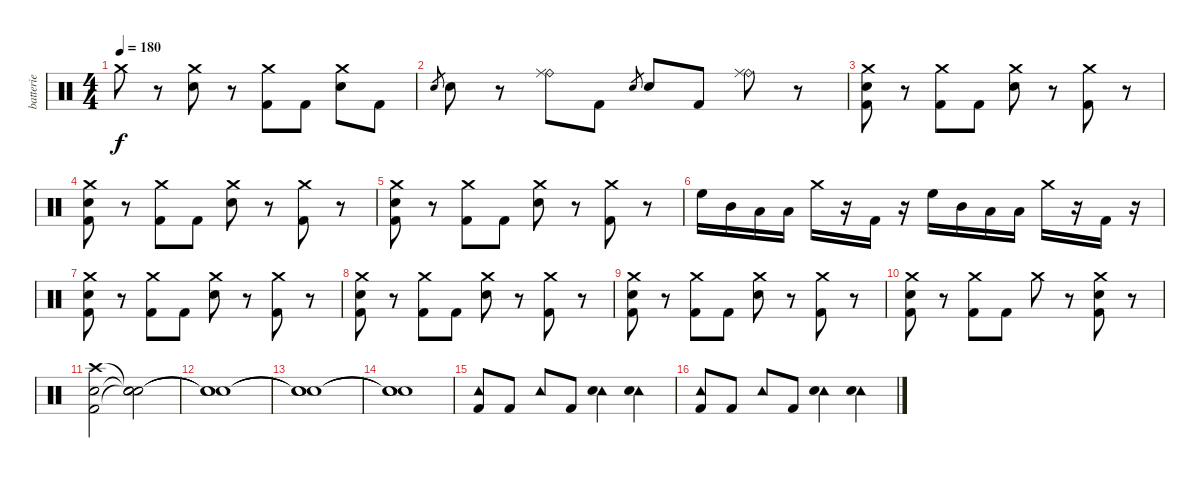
\track ("batterie" "batterie") {instrument percussion}
\staff {score}
\articulation defaults
\ts (4 4)
\tempo 180
\clef neutral
\ks c "Crash medium (hit)".8{dy f}
r.8 ("Crash medium (hit)" "Electric Snare (hit)").8 r.8 ("Crash medium (hit)" "Kick (hit) 2").8 "Kick (hit) 2".8 ("Crash medium (hit)" "Electric Snare (hit)").8 "Kick (hit) 2".8 |
"Electric Snare (hit)".8{gr} "Electric Snare (hit)".8 r.8 ("Ride (bell)" "Ride (middle)").8 "Kick (hit) 2".8 "Electric Snare (hit)".8{gr} "Electric Snare (hit)".8 "Kick (hit) 2".8 ("Ride (bell)" "Ride (middle)").8 r.8 |
("Crash medium (hit)" "Electric Snare (hit)" "Kick (hit) 2").8 r.8 ("Crash medium (hit)" "Kick (hit) 2").8 "Kick (hit) 2".8 ("Crash medium (hit)" "Electric Snare (hit)").8 r.8 ("Crash medium (hit)" "Kick (hit) 2").8 r.8 |
("Crash medium (hit)" "Electric Snare (hit)" "Kick (hit) 2").8 r.8 ("Crash medium (hit)" "Kick (hit) 2").8 "Kick (hit) 2".8 ("Crash medium (hit)" "Electric Snare (hit)").8 r.8 ("Crash medium (hit)" "Kick (hit) 2").8 r.8 |
("Crash medium (hit)" "Electric Snare (hit)" "Kick (hit) 2").8 r.8 ("Crash medium (hit)" "Kick (hit) 2").8 "Kick (hit) 2".8 ("Crash medium (hit)" "Electric Snare (hit)").8 r.8 ("Crash medium (hit)" "Kick (hit) 2").8 r.8 |
"High Floor Tom (hit)".16 "Mid Tom (hit)".16 "Low Tom (hit)".16 "Low Tom (hit)".16 "Crash medium (hit)".16 r.16 "Kick (hit) 2".16 r.16 "High Floor Tom (hit)".16 "Mid Tom (hit)".16 "Low Tom (hit)".16 "Low Tom (hit)".16 "Crash medium (hit)".16 r.16 "Kick (hit) 2".16 r.16 |
("Crash medium (hit)" "Electric Snare (hit)" "Kick (hit) 2").8 r.8 ("Crash medium (hit)" "Kick (hit) 2").8 "Kick (hit) 2".8 ("Crash medium (hit)" "Electric Snare (hit)").8 r.8 ("Crash medium (hit)" "Kick (hit) 2").8 r.8 |
("Crash medium (hit)" "Electric Snare (hit)" "Kick (hit) 2").8 r.8 ("Crash medium (hit)" "Kick (hit) 2").8 "Kick (hit) 2".8 ("Crash medium (hit)" "Electric Snare (hit)").8 r.8 ("Crash medium (hit)" "Kick (hit) 2").8 r.8 |
("Crash medium (hit)" "Electric Snare (hit)" "Kick (hit) 2").8 r.8 ("Crash medium (hit)" "Kick (hit) 2").8 "Kick (hit) 2".8 ("Crash medium (hit)" "Electric Snare (hit)").8 r.8 ("Crash medium (hit)" "Kick (hit) 2").8 r.8 |
("Crash medium (hit)" "Electric Snare (hit)" "Kick (hit) 2").8 r.8 ("Crash medium (hit)" "Kick (hit) 2").8 "Kick (hit) 2".8 "Crash medium (hit)".8 r.8 ("Crash medium (hit)" "Electric Snare (hit)" "Kick (hit) 2").8 r.8 |
("Crash high (hit)" "Electric Snare (hit)" "Kick (hit) 2").2 ("Snare (hit)"{t} "Snare (hit)"{t} "Snare (hit)"{t}).2 |
("Snare (hit)"{t} "Snare (hit)"{t} "Snare (hit)"{t}).1 |
("Snare (hit)"{t} "Snare (hit)"{t} "Snare (hit)"{t}).1 |
("Snare (hit)"{t} "Snare (hit)"{t} "Snare (hit)"{t}).1 |
("Tambourine (hit)" "Kick (hit) 2").8 "Kick (hit) 2".8 "Tambourine (hit)".8 "Kick (hit) 2".8 ("Tambourine (hit)" "Electric Snare (hit)").4 ("Tambourine (hit)" "Electric Snare (hit)").4 |
("Tambourine (hit)" "Kick (hit) 2").8 "Kick (hit) 2".8 "Tambourine (hit)".8 "Kick (hit) 2".8 ("Tambourine (hit)" "Electric Snare (hit)").4 ("Tambourine (hit)" "Electric Snare (hit)").4
